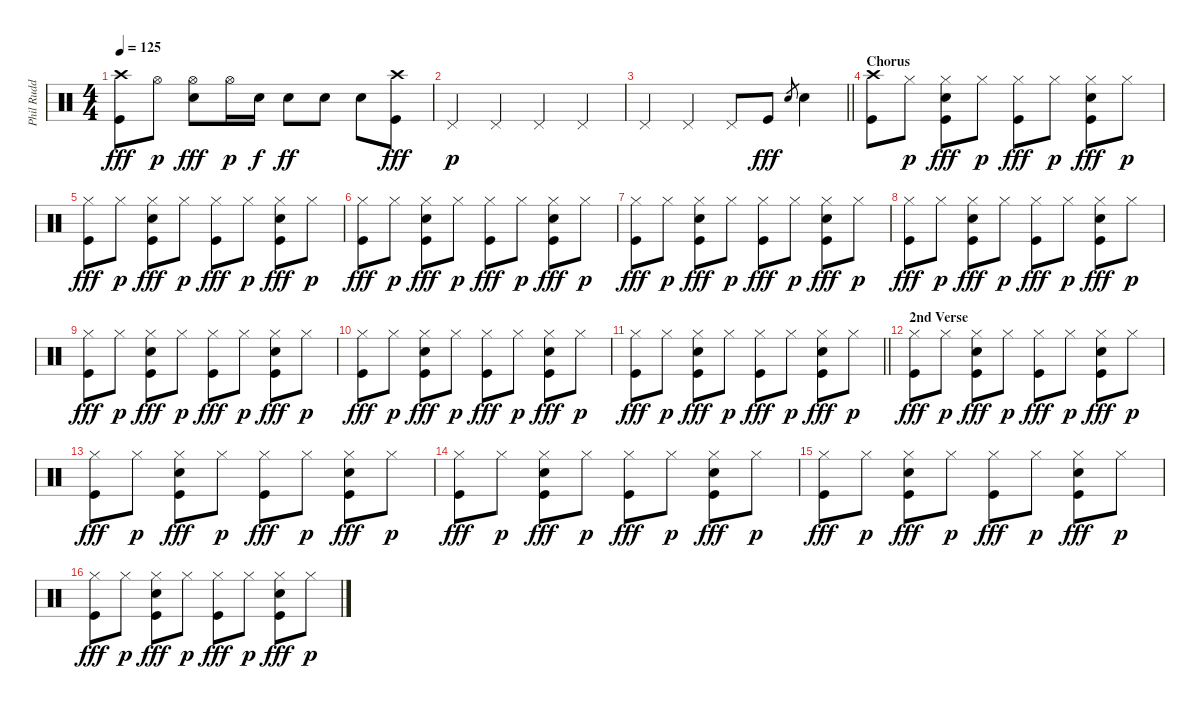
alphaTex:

\track ("Phil Rudd" "Phil Rudd") {instrument percussion}
\staff {score}
\articulation defaults
\ts (4 4)
\tempo 125
\clef neutral
\ks c
("Crash high (hit)" "Kick (hit)").8{dy fff} "Hi-Hat (open)".8{dy p} ("Hi-Hat (open)" "Snare (hit) 2").8{dy fff} "Hi-Hat (open)".16{dy p} "Snare (hit) 2".16{dy f} "Snare (hit) 2".8{dy ff} "Snare (hit) 2".8 "Snare (hit) 2".8 ("Crash high (hit)" "Kick (hit)").8{dy fff} |
"Pedal Hi-Hat (hit)".4{dy p} "Pedal Hi-Hat (hit)".4 "Pedal Hi-Hat (hit)".4 "Pedal Hi-Hat (hit)".4 |
\barLineRight lightlight "Pedal Hi-Hat (hit)".4 "Pedal Hi-Hat (hit)".4 "Pedal Hi-Hat (hit)".8 "Kick (hit)".8{dy fff} "Snare (hit) 2".8{gr} "Snare (hit) 2".4
|
\section ("" "Chorus")
("Crash high (hit)" "Kick (hit)").8 "Hi-Hat (closed)".8{dy p} ("Hi-Hat (closed)" "Snare (hit) 2" "Kick (hit)").8{dy fff} "Hi-Hat (closed)".8{dy p} ("Hi-Hat (closed)" "Kick (hit)").8{dy fff} "Hi-Hat (closed)".8{dy p} ("Hi-Hat (closed)" "Snare (hit) 2" "Kick (hit)").8{dy fff} "Hi-Hat (closed)".8{dy p} |
("Hi-Hat (closed)" "Kick (hit)").8{dy fff} "Hi-Hat (closed)".8{dy p} ("Hi-Hat (closed)" "Snare (hit) 2" "Kick (hit)").8{dy fff} "Hi-Hat (closed)".8{dy p} ("Hi-Hat (closed)" "Kick (hit)").8{dy fff} "Hi-Hat (closed)".8{dy p} ("Hi-Hat (closed)" "Snare (hit) 2" "Kick (hit)").8{dy fff} "Hi-Hat (closed)".8{dy p} |
("Hi-Hat (closed)" "Kick (hit)").8{dy fff} "Hi-Hat (closed)".8{dy p} ("Hi-Hat (closed)" "Snare (hit) 2" "Kick (hit)").8{dy fff} "Hi-Hat (closed)".8{dy p} ("Hi-Hat (closed)" "Kick (hit)").8{dy fff} "Hi-Hat (closed)".8{dy p} ("Hi-Hat (closed)" "Snare (hit) 2" "Kick (hit)").8{dy fff} "Hi-Hat (closed)".8{dy p} |
("Hi-Hat (closed)" "Kick (hit)").8{dy fff} "Hi-Hat (closed)".8{dy p} ("Hi-Hat (closed)" "Snare (hit) 2" "Kick (hit)").8{dy fff} "Hi-Hat (closed)".8{dy p} ("Hi-Hat (closed)" "Kick (hit)").8{dy fff} "Hi-Hat (closed)".8{dy p} ("Hi-Hat (closed)" "Snare (hit) 2" "Kick (hit)").8{dy fff} "Hi-Hat (closed)".8{dy p} |
("Hi-Hat (closed)" "Kick (hit)").8{dy fff} "Hi-Hat (closed)".8{dy p} ("Hi-Hat (closed)" "Snare (hit) 2" "Kick (hit)").8{dy fff} "Hi-Hat (closed)".8{dy p} ("Hi-Hat (closed)" "Kick (hit)").8{dy fff} "Hi-Hat (closed)".8{dy p} ("Hi-Hat (closed)" "Snare (hit) 2" "Kick (hit)").8{dy fff} "Hi-Hat (closed)".8{dy p} |
("Hi-Hat (closed)" "Kick (hit)").8{dy fff} "Hi-Hat (closed)".8{dy p} ("Hi-Hat (closed)" "Snare (hit) 2" "Kick (hit)").8{dy fff} "Hi-Hat (closed)".8{dy p} ("Hi-Hat (closed)" "Kick (hit)").8{dy fff} "Hi-Hat (closed)".8{dy p} ("Hi-Hat (closed)" "Snare (hit) 2" "Kick (hit)").8{dy fff} "Hi-Hat (closed)".8{dy p} |
("Hi-Hat (closed)" "Kick (hit)").8{dy fff} "Hi-Hat (closed)".8{dy p} ("Hi-Hat (closed)" "Snare (hit) 2" "Kick (hit)").8{dy fff} "Hi-Hat (closed)".8{dy p} ("Hi-Hat (closed)" "Kick (hit)").8{dy fff} "Hi-Hat (closed)".8{dy p} ("Hi-Hat (closed)" "Snare (hit) 2" "Kick (hit)").8{dy fff} "Hi-Hat (closed)".8{dy p} |
\barLineRight lightlight
("Hi-Hat (closed)" "Kick (hit)").8{dy fff} "Hi-Hat (closed)".8{dy p} ("Hi-Hat (closed)" "Snare (hit) 2" "Kick (hit)").8{dy fff} "Hi-Hat (closed)".8{dy p} ("Hi-Hat (closed)" "Kick (hit)").8{dy fff} "Hi-Hat (closed)".8{dy p} ("Hi-Hat (closed)" "Snare (hit) 2" "Kick (hit)").8{dy fff} "Hi-Hat (closed)".8{dy p} |
\section ("" "2nd Verse")
("Hi-Hat (closed)" "Kick (hit)").8{dy fff} "Hi-Hat (closed)".8{dy p} ("Hi-Hat (closed)" "Snare (hit) 2" "Kick (hit)").8{dy fff} "Hi-Hat (closed)".8{dy p} ("Hi-Hat (closed)" "Kick (hit)").8{dy fff} "Hi-Hat (closed)".8{dy p} ("Hi-Hat (closed)" "Snare (hit) 2" "Kick (hit)").8{dy fff} "Hi-Hat (closed)".8{dy p} |
("Hi-Hat (closed)" "Kick (hit)").8{dy fff} "Hi-Hat (closed)".8{dy p} ("Hi-Hat (closed)" "Snare (hit) 2" "Kick (hit)").8{dy fff} "Hi-Hat (closed)".8{dy p} ("Hi-Hat (closed)" "Kick (hit)").8{dy fff} "Hi-Hat (closed)".8{dy p} ("Hi-Hat (closed)" "Snare (hit) 2" "Kick (hit)").8{dy fff} "Hi-Hat (closed)".8{dy p} |
("Hi-Hat (closed)" "Kick (hit)").8{dy fff} "Hi-Hat (closed)".8{dy p} ("Hi-Hat (closed)" "Snare (hit) 2" "Kick (hit)").8{dy fff} "Hi-Hat (closed)".8{dy p} ("Hi-Hat (closed)" "Kick (hit)").8{dy fff} "Hi-Hat (closed)".8{dy p} ("Hi-Hat (closed)" "Snare (hit) 2" "Kick (hit)").8{dy fff} "Hi-Hat (closed)".8{dy p} |
("Hi-Hat (closed)" "Kick (hit)").8{dy fff} "Hi-Hat (closed)".8{dy p} ("Hi-Hat (closed)" "Snare (hit) 2" "Kick (hit)").8{dy fff} "Hi-Hat (closed)".8{dy p} ("Hi-Hat (closed)" "Kick (hit)").8{dy fff} "Hi-Hat (closed)".8{dy p} ("Hi-Hat (closed)" "Snare (hit) 2" "Kick (hit)").8{dy fff} "Hi-Hat (closed)".8{dy p} |
("Hi-Hat (closed)" "Kick (hit)").8{dy fff} "Hi-Hat (closed)".8{dy p} ("Hi-Hat (closed)" "Snare (hit) 2" "Kick (hit)").8{dy fff} "Hi-Hat (closed)".8{dy p} ("Hi-Hat (closed)" "Kick (hit)").8{dy fff} "Hi-Hat (closed)".8{dy p} ("Hi-Hat (closed)" "Snare (hit) 2" "Kick (hit)").8{dy fff} "Hi-Hat (closed)".8{dy p}
